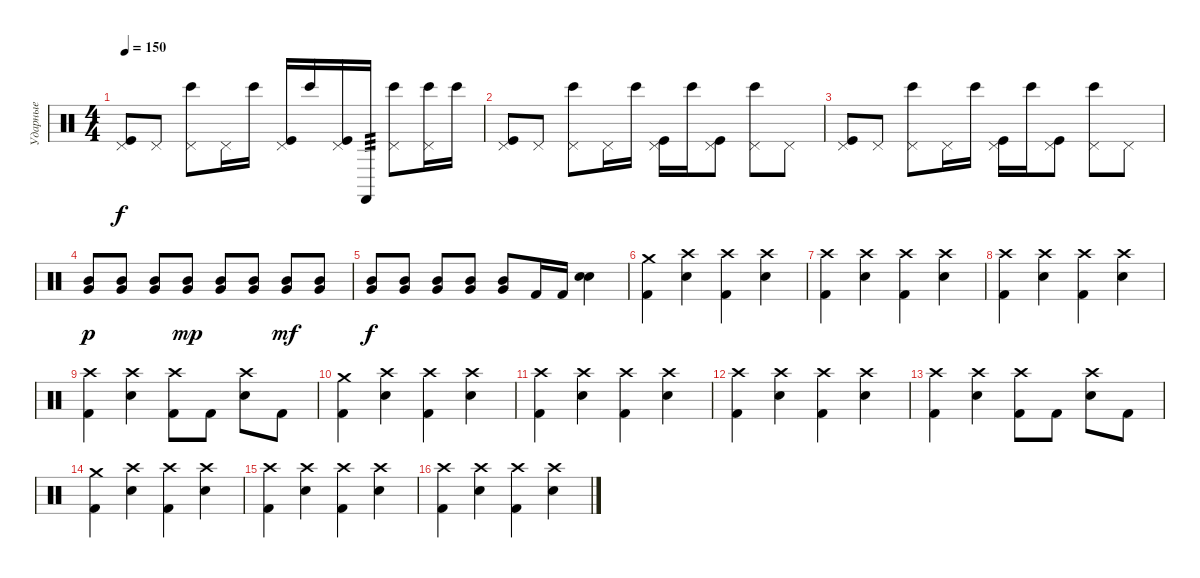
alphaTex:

\track ("Ударные" "Ударные") {instrument percussion}
\staff {score}
\articulation defaults
\ts (4 4)
\tempo 150
\clef neutral
\ks c
("Kick (hit)" "Pedal Hi-Hat (hit)").8{dy f} "Pedal Hi-Hat (hit)".8 ("Bongo High (hit)" "Pedal Hi-Hat (hit)").8 "Pedal Hi-Hat (hit)".16 "Bongo High (hit)".16 ("Kick (hit)" "Pedal Hi-Hat (hit)").16 "Bongo High (hit)".16 ("Kick (hit)" "Pedal Hi-Hat (hit)").16 "Castanets (hit)".16{tp 3} ("Bongo High (hit)" "Pedal Hi-Hat (hit)").8 ("Bongo High (hit)" "Pedal Hi-Hat (hit)").16 "Bongo High (hit)".16 |
("Kick (hit)" "Pedal Hi-Hat (hit)").8 "Pedal Hi-Hat (hit)".8 ("Bongo High (hit)" "Pedal Hi-Hat (hit)").8 "Pedal Hi-Hat (hit)".16 "Bongo High (hit)".16 ("Kick (hit)" "Pedal Hi-Hat (hit)").16 "Bongo High (hit)".16 ("Kick (hit)" "Pedal Hi-Hat (hit)").8 ("Bongo High (hit)" "Pedal Hi-Hat (hit)").8 "Pedal Hi-Hat (hit)".8 |
("Kick (hit)" "Pedal Hi-Hat (hit)").8 "Pedal Hi-Hat (hit)".8 ("Bongo High (hit)" "Pedal Hi-Hat (hit)").8 "Pedal Hi-Hat (hit)".16 "Bongo High (hit)".16 ("Kick (hit)" "Pedal Hi-Hat (hit)").16 "Bongo High (hit)".16 ("Kick (hit)" "Pedal Hi-Hat (hit)").8 ("Bongo High (hit)" "Pedal Hi-Hat (hit)").8 "Pedal Hi-Hat (hit)".8 |
("Very Low Tom (hit)" "Mid Tom (hit)").8{dy p volume 16} ("Very Low Tom (hit)" "Mid Tom (hit)").8 ("Very Low Tom (hit)" "Mid Tom (hit)").8 ("Very Low Tom (hit)" "Mid Tom (hit)").8{dy mp} ("Very Low Tom (hit)" "Mid Tom (hit)").8 ("Very Low Tom (hit)" "Mid Tom (hit)").8 ("Very Low Tom (hit)" "Mid Tom (hit)").8{dy mf} ("Very Low Tom (hit)" "Mid Tom (hit)").8 |
("Very Low Tom (hit)" "Mid Tom (hit)").8{dy f} ("Very Low Tom (hit)" "Mid Tom (hit)").8 ("Very Low Tom (hit)" "Mid Tom (hit)").8 ("Very Low Tom (hit)" "Mid Tom (hit)").8 ("Very Low Tom (hit)" "Mid Tom (hit)").8 "Kick (hit) 2".16 "Kick (hit) 2".16 ("Electric Snare (hit)" "Electric Snare (hit)").4 |
("Crash medium (hit)" "Kick (hit) 2").4 ("Crash high (hit)" "Electric Snare (hit)").4 ("Crash high (hit)" "Kick (hit) 2").4 ("Crash high (hit)" "Electric Snare (hit)").4 |
("Crash high (hit)" "Kick (hit) 2").4 ("Crash high (hit)" "Electric Snare (hit)").4 ("Crash high (hit)" "Kick (hit) 2").4 ("Crash high (hit)" "Electric Snare (hit)").4 |
("Crash high (hit)" "Kick (hit) 2").4 ("Crash high (hit)" "Electric Snare (hit)").4 ("Crash high (hit)" "Kick (hit) 2").4 ("Crash high (hit)" "Electric Snare (hit)").4 |
("Crash high (hit)" "Kick (hit) 2").4 ("Crash high (hit)" "Electric Snare (hit)").4 ("Crash high (hit)" "Kick (hit) 2").8 "Kick (hit) 2".8 ("Crash high (hit)" "Electric Snare (hit)").8 "Kick (hit) 2".8 |
("Crash medium (hit)" "Kick (hit) 2").4 ("Crash high (hit)" "Electric Snare (hit)").4 ("Crash high (hit)" "Kick (hit) 2").4 ("Crash high (hit)" "Electric Snare (hit)").4 |
("Crash high (hit)" "Kick (hit) 2").4 ("Crash high (hit)" "Electric Snare (hit)").4 ("Crash high (hit)" "Kick (hit) 2").4 ("Crash high (hit)" "Electric Snare (hit)").4 |
("Crash high (hit)" "Kick (hit) 2").4 ("Crash high (hit)" "Electric Snare (hit)").4 ("Crash high (hit)" "Kick (hit) 2").4 ("Crash high (hit)" "Electric Snare (hit)").4 |
("Crash high (hit)" "Kick (hit) 2").4 ("Crash high (hit)" "Electric Snare (hit)").4 ("Crash high (hit)" "Kick (hit) 2").8 "Kick (hit) 2".8 ("Crash high (hit)" "Electric Snare (hit)").8 "Kick (hit) 2".8 |
("Crash medium (hit)" "Kick (hit) 2").4 ("Crash high (hit)" "Electric Snare (hit)").4 ("Crash high (hit)" "Kick (hit) 2").4 ("Crash high (hit)" "Electric Snare (hit)").4 |
("Crash high (hit)" "Kick (hit) 2").4 ("Crash high (hit)" "Electric Snare (hit)").4 ("Crash high (hit)" "Kick (hit) 2").4 ("Crash high (hit)" "Electric Snare (hit)").4 |
("Crash high (hit)" "Kick (hit) 2").4 ("Crash high (hit)" "Electric Snare (hit)").4 ("Crash high (hit)" "Kick (hit) 2").4 ("Crash high (hit)" "Electric Snare (hit)").4
